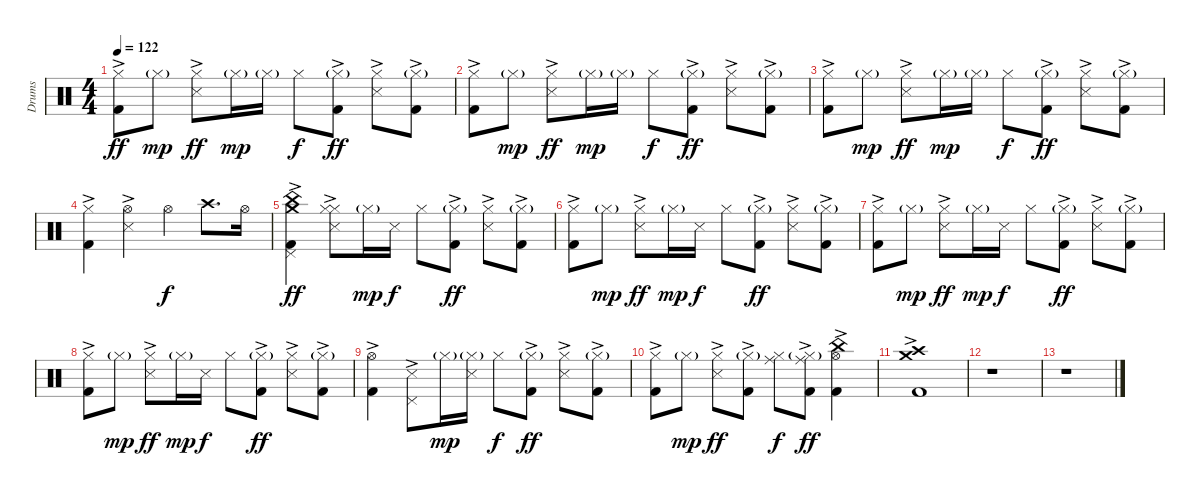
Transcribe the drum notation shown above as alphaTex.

\track ("Drums" "Drums") {instrument percussion}
\staff {score}
\articulation defaults
\ts (4 4)
\tempo 122
\clef neutral
\ks c
("Hi-Hat (closed)" "Kick (hit) 2"{ac}).8{dy ff} "Hi-Hat (closed)"{g}.8{dy mp} ("Hi-Hat (closed)" "Snare (side stick) 3"{ac}).8{dy ff} "Hi-Hat (closed)"{g}.16{dy mp} "Hi-Hat (closed)"{g}.16 "Hi-Hat (closed)".8{dy f} ("Hi-Hat (closed)"{g} "Kick (hit) 2"{ac}).8{dy ff} ("Hi-Hat (closed)" "Snare (side stick) 3"{ac}).8 ("Hi-Hat (closed)"{g} "Kick (hit) 2"{ac}).8 |
("Hi-Hat (closed)" "Kick (hit) 2"{ac}).8 "Hi-Hat (closed)"{g}.8{dy mp} ("Hi-Hat (closed)" "Snare (side stick) 3"{ac}).8{dy ff} "Hi-Hat (closed)"{g}.16{dy mp} "Hi-Hat (closed)"{g}.16 "Hi-Hat (closed)".8{dy f} ("Hi-Hat (closed)"{g} "Kick (hit) 2"{ac}).8{dy ff} ("Hi-Hat (closed)" "Snare (side stick) 3"{ac}).8 ("Hi-Hat (closed)"{g} "Kick (hit) 2"{ac}).8 |
("Hi-Hat (closed)" "Kick (hit) 2"{ac}).8 "Hi-Hat (closed)"{g}.8{dy mp} ("Hi-Hat (closed)" "Snare (side stick) 3"{ac}).8{dy ff} "Hi-Hat (closed)"{g}.16{dy mp} "Hi-Hat (closed)"{g}.16 "Hi-Hat (closed)".8{dy f} ("Hi-Hat (closed)"{g} "Kick (hit) 2"{ac}).8{dy ff} ("Hi-Hat (closed)" "Snare (side stick) 3"{ac}).8 ("Hi-Hat (closed)"{g} "Kick (hit) 2"{ac}).8 |
("Hi-Hat (closed)" "Kick (hit) 2"{ac}).4 ("Hi-Hat (open)" "Snare (side stick) 3"{ac}).4 "Hi-Hat (open)".4{dy f} "Crash high (hit)".8{d} "Hi-Hat (open)".16 |
("Pedal Hi-Hat (hit)" "China (hit)" "Crash medium (hit)" "Kick (hit) 2"{ac}).4{dy ff} ("Hi-Hat (closed)" "Hi-Hat (closed)" "Snare (side stick) 3"{ac}).8 "Hi-Hat (closed)"{g}.16{dy mp} "Snare (side stick) 3".16{dy f} "Hi-Hat (closed)".8 ("Hi-Hat (closed)"{g} "Kick (hit) 2"{ac}).8{dy ff} ("Hi-Hat (closed)" "Snare (side stick) 3"{ac}).8 ("Hi-Hat (closed)"{g} "Kick (hit) 2"{ac}).8 |
("Hi-Hat (closed)" "Kick (hit) 2"{ac}).8 "Hi-Hat (closed)"{g}.8{dy mp} ("Hi-Hat (closed)" "Snare (side stick) 3"{ac}).8{dy ff} "Hi-Hat (closed)"{g}.16{dy mp} "Snare (side stick) 3".16{dy f} "Hi-Hat (closed)".8 ("Hi-Hat (closed)"{g} "Kick (hit) 2"{ac}).8{dy ff} ("Hi-Hat (closed)" "Snare (side stick) 3"{ac}).8 ("Hi-Hat (closed)"{g} "Kick (hit) 2"{ac}).8 |
("Hi-Hat (closed)" "Kick (hit) 2"{ac}).8 "Hi-Hat (closed)"{g}.8{dy mp} ("Hi-Hat (closed)" "Snare (side stick) 3"{ac}).8{dy ff} "Hi-Hat (closed)"{g}.16{dy mp} "Snare (side stick) 3".16{dy f} "Hi-Hat (closed)".8 ("Hi-Hat (closed)"{g} "Kick (hit) 2"{ac}).8{dy ff} ("Hi-Hat (closed)" "Snare (side stick) 3"{ac}).8 ("Hi-Hat (closed)"{g} "Kick (hit) 2"{ac}).8 |
("Hi-Hat (closed)" "Kick (hit) 2"{ac}).8 "Hi-Hat (closed)"{g}.8{dy mp} ("Hi-Hat (closed)" "Snare (side stick) 3"{ac}).8{dy ff} "Hi-Hat (closed)"{g}.16{dy mp} "Snare (side stick) 3".16{dy f} "Hi-Hat (closed)".8 ("Hi-Hat (closed)"{g} "Kick (hit) 2"{ac}).8{dy ff} ("Hi-Hat (closed)" "Snare (side stick) 3"{ac}).8 ("Hi-Hat (closed)"{g} "Kick (hit) 2"{ac}).8 |
("Hi-Hat (open)" "Kick (hit) 2"{ac}).4 ("Pedal Hi-Hat (hit)" "Snare (side stick) 3"{ac}).8 "Hi-Hat (closed)"{g}.16{dy mp} ("Hi-Hat (closed)"{g} "Snare (side stick) 3").16 "Hi-Hat (closed)".8{dy f} ("Hi-Hat (closed)"{g} "Kick (hit) 2"{ac}).8{dy ff} ("Hi-Hat (closed)" "Snare (side stick) 3"{ac}).8 ("Hi-Hat (closed)"{g} "Kick (hit) 2"{ac}).8 |
("Hi-Hat (closed)" "Kick (hit) 2"{ac}).8 "Hi-Hat (closed)"{g}.8{dy mp} ("Hi-Hat (closed)" "Snare (side stick) 3"{ac}).8{dy ff} ("Hi-Hat (closed)"{g} "Kick (hit) 2"{ac}).8 ("Hi-Hat (closed)" "Ride (middle)").8{dy f} ("Hi-Hat (closed)"{g} "Ride (middle)" "Kick (hit) 2"{ac}).8{dy ff} ("Hi-Hat (open)" "China (hit)" "Kick (hit) 2"{ac}).4 |
("Crash medium (hit)" "Crash high (hit)" "Kick (hit) 2"{ac}).1 |
r.1 |
r.1
